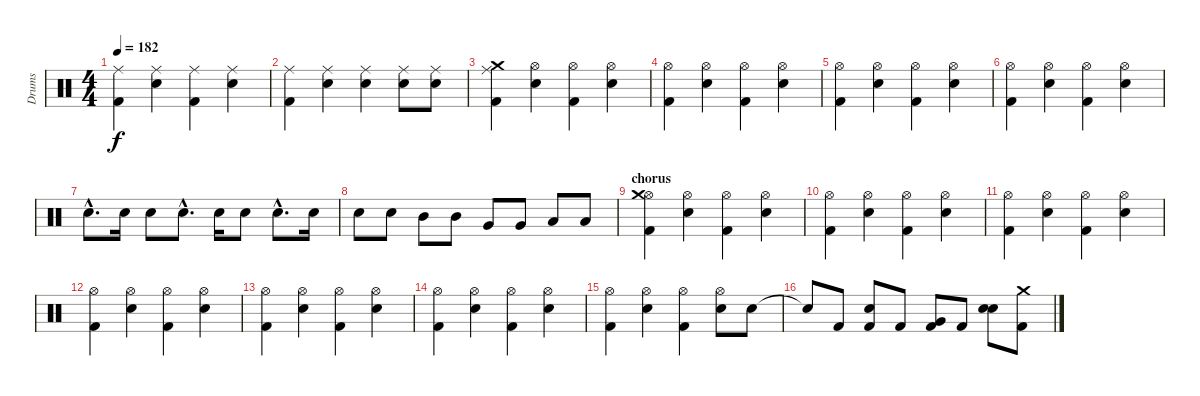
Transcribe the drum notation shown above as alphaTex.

\track ("Drums" "Drums") {instrument percussion}
\staff {score}
\articulation defaults
\ts (4 4)
\tempo 182
\clef neutral
\ks c
("Kick (hit) 2" "Ride (middle)").4{dy f} ("Snare (hit) 2" "Ride (middle)").4 ("Kick (hit) 2" "Ride (middle)").4 ("Snare (hit) 2" "Ride (middle)").4 |
("Kick (hit) 2" "Ride (middle)").4 ("Snare (hit) 2" "Ride (middle)").4 ("Snare (hit) 2" "Ride (middle)").4 ("Snare (hit) 2" "Ride (middle)").8 ("Snare (hit) 2" "Ride (middle)").8 |
("Kick (hit) 2" "Ride (middle)" "Crash medium (hit)").4 ("Snare (hit) 2" "Hi-Hat (open)").4 ("Kick (hit) 2" "Hi-Hat (open)").4 ("Snare (hit) 2" "Hi-Hat (open)").4 |
("Kick (hit) 2" "Hi-Hat (open)").4 ("Snare (hit) 2" "Hi-Hat (open)").4 ("Kick (hit) 2" "Hi-Hat (open)").4 ("Snare (hit) 2" "Hi-Hat (open)").4 |
("Kick (hit) 2" "Hi-Hat (open)").4 ("Snare (hit) 2" "Hi-Hat (open)").4 ("Kick (hit) 2" "Hi-Hat (open)").4 ("Snare (hit) 2" "Hi-Hat (open)").4 |
("Kick (hit) 2" "Hi-Hat (open)").4 ("Snare (hit) 2" "Hi-Hat (open)").4 ("Kick (hit) 2" "Hi-Hat (open)").4 ("Snare (hit) 2" "Hi-Hat (open)").4 |
"Electric Snare (hit)"{hac}.8{d} "Snare (hit) 2".16 "Snare (hit) 2".8 "Snare (hit) 2"{hac}.8{d} "Electric Snare (hit)".16 "Snare (hit) 2".8 "Snare (hit) 2"{hac}.8{d} "Snare (hit) 2".16 |
"Electric Snare (hit)".8 "Electric Snare (hit)".8 "Mid Tom (hit)".8 "Mid Tom (hit)".8 "Very Low Tom (hit)".8 "Very Low Tom (hit)".8 "Low Floor Tom (hit)".8 "Low Floor Tom (hit)".8 |
\section ("" "chorus")
("Kick (hit) 2" "Hi-Hat (open)" "Crash medium (hit)").4 ("Snare (hit) 2" "Hi-Hat (open)").4 ("Kick (hit) 2" "Hi-Hat (open)").4 ("Snare (hit) 2" "Hi-Hat (open)").4 |
("Kick (hit) 2" "Hi-Hat (open)").4 ("Snare (hit) 2" "Hi-Hat (open)").4 ("Kick (hit) 2" "Hi-Hat (open)").4 ("Snare (hit) 2" "Hi-Hat (open)").4 |
("Kick (hit) 2" "Hi-Hat (open)").4 ("Snare (hit) 2" "Hi-Hat (open)").4 ("Kick (hit) 2" "Hi-Hat (open)").4 ("Snare (hit) 2" "Hi-Hat (open)").4 |
("Kick (hit) 2" "Hi-Hat (open)").4 ("Snare (hit) 2" "Hi-Hat (open)").4 ("Kick (hit) 2" "Hi-Hat (open)").4 ("Snare (hit) 2" "Hi-Hat (open)").4 |
("Kick (hit) 2" "Hi-Hat (open)").4 ("Snare (hit) 2" "Hi-Hat (open)").4 ("Kick (hit) 2" "Hi-Hat (open)").4 ("Snare (hit) 2" "Hi-Hat (open)").4 |
("Kick (hit) 2" "Hi-Hat (open)").4 ("Snare (hit) 2" "Hi-Hat (open)").4 ("Kick (hit) 2" "Hi-Hat (open)").4 ("Snare (hit) 2" "Hi-Hat (open)").4 |
("Kick (hit) 2" "Hi-Hat (open)").4 ("Snare (hit) 2" "Hi-Hat (open)").4 ("Kick (hit) 2" "Hi-Hat (open)").4 ("Snare (hit) 2" "Hi-Hat (open)").8 "Snare (hit) 2".8 |
"Snare (hit)"{t}.8 "Kick (hit) 2".8 ("Kick (hit) 2" "Electric Snare (hit)").8 "Kick (hit) 2".8 ("Kick (hit) 2" "Very Low Tom (hit)").8 "Kick (hit) 2".8 ("Snare (hit) 2" "Electric Snare (hit)").8 ("Kick (hit) 2" "Crash medium (hit)").8
